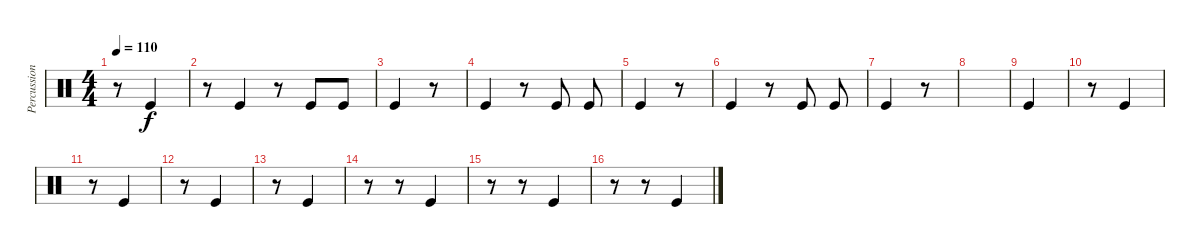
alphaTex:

\track ("Percussion" "Percussion") {instrument percussion}
\staff {score}
\articulation defaults
\ts (4 4)
\tempo 110
\clef neutral
\ks c
r.8{dy f} "Kick (hit)".4 |
r.8 "Kick (hit)".4 r.8 "Kick (hit)".8 "Kick (hit)".8 |
"Kick (hit)".4 r.8 |
"Kick (hit)".4 r.8 "Kick (hit)".8 "Kick (hit)".8 |
"Kick (hit)".4 r.8 |
"Kick (hit)".4 r.8 "Kick (hit)".8 "Kick (hit)".8 |
"Kick (hit)".4 r.8 |
|
"Kick (hit)".4 |
r.8 "Kick (hit)".4 |
r.8 "Kick (hit)".4 |
r.8 "Kick (hit)".4 |
r.8 "Kick (hit)".4 |
r.8 r.8 "Kick (hit)".4 |
r.8 r.8 "Kick (hit)".4 |
r.8 r.8 "Kick (hit)".4
